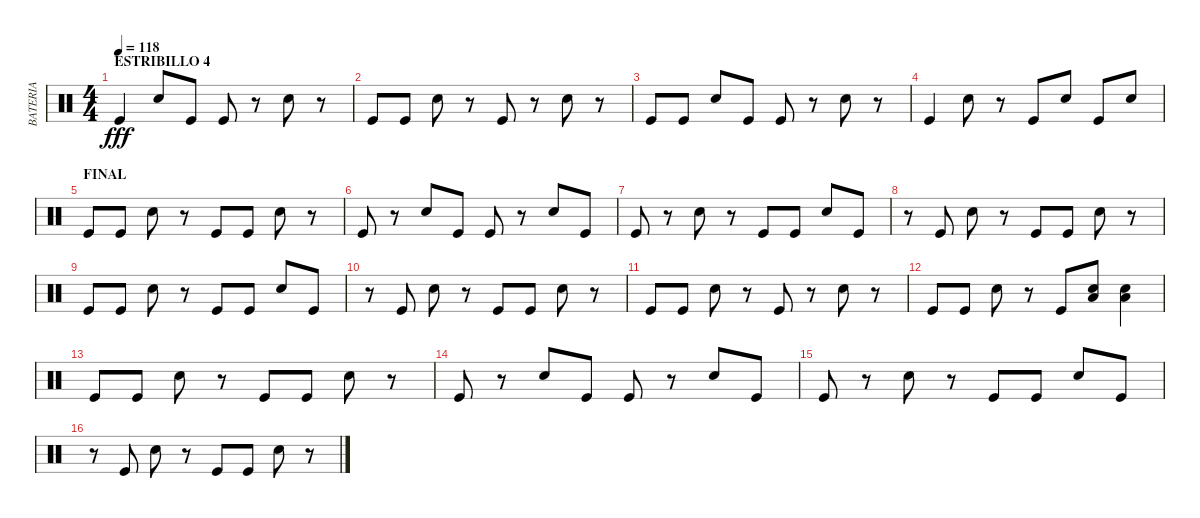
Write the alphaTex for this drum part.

\track ("BATERIA" "BATERIA") {instrument percussion}
\staff {score}
\articulation defaults
\ts (4 4)
\section ("" "ESTRIBILLO 4")
\tempo 118
\clef neutral
\ks c "Kick (hit)".4{dy fff} "Snare (hit) 2".8 "Kick (hit)".8 "Kick (hit)".8
r.8 "Snare (hit) 2".8 r.8 |
"Kick (hit)".8 "Kick (hit)".8 "Snare (hit) 2".8 r.8 "Kick (hit)".8 r.8 "Snare (hit) 2".8 r.8 |
"Kick (hit)".8 "Kick (hit)".8 "Snare (hit) 2".8 "Kick (hit)".8 "Kick (hit)".8 r.8 "Snare (hit) 2".8 r.8 |
"Kick (hit)".4 "Snare (hit) 2".8 r.8 "Kick (hit)".8 "Snare (hit) 2".8 "Kick (hit)".8 "Snare (hit) 2".8 |
\section ("" "FINAL")
"Kick (hit)".8 "Kick (hit)".8 "Snare (hit) 2".8 r.8 "Kick (hit)".8 "Kick (hit)".8 "Snare (hit) 2".8 r.8 |
"Kick (hit)".8 r.8 "Snare (hit) 2".8 "Kick (hit)".8 "Kick (hit)".8 r.8 "Snare (hit) 2".8 "Kick (hit)".8 |
"Kick (hit)".8 r.8 "Snare (hit) 2".8 r.8 "Kick (hit)".8 "Kick (hit)".8 "Snare (hit) 2".8 "Kick (hit)".8 |
r.8 "Kick (hit)".8 "Snare (hit) 2".8 r.8 "Kick (hit)".8 "Kick (hit)".8 "Snare (hit) 2".8 r.8 |
"Kick (hit)".8 "Kick (hit)".8 "Snare (hit) 2".8 r.8 "Kick (hit)".8 "Kick (hit)".8 "Snare (hit) 2".8 "Kick (hit)".8 |
r.8 "Kick (hit)".8 "Snare (hit) 2".8 r.8 "Kick (hit)".8 "Kick (hit)".8 "Snare (hit) 2".8 r.8 |
"Kick (hit)".8 "Kick (hit)".8 "Snare (hit) 2".8 r.8 "Kick (hit)".8 r.8 "Snare (hit) 2".8 r.8 |
"Kick (hit)".8 "Kick (hit)".8 "Snare (hit) 2".8 r.8 "Kick (hit)".8 ("Low Tom (hit)" "Snare (hit) 2").8 ("Low Tom (hit)" "Snare (hit) 2").4 |
"Kick (hit)".8 "Kick (hit)".8 "Snare (hit) 2".8 r.8 "Kick (hit)".8 "Kick (hit)".8 "Snare (hit) 2".8 r.8 |
"Kick (hit)".8 r.8 "Snare (hit) 2".8 "Kick (hit)".8 "Kick (hit)".8 r.8 "Snare (hit) 2".8 "Kick (hit)".8 |
"Kick (hit)".8 r.8 "Snare (hit) 2".8 r.8 "Kick (hit)".8 "Kick (hit)".8 "Snare (hit) 2".8 "Kick (hit)".8 |
r.8 "Kick (hit)".8 "Snare (hit) 2".8 r.8 "Kick (hit)".8 "Kick (hit)".8 "Snare (hit) 2".8 r.8
